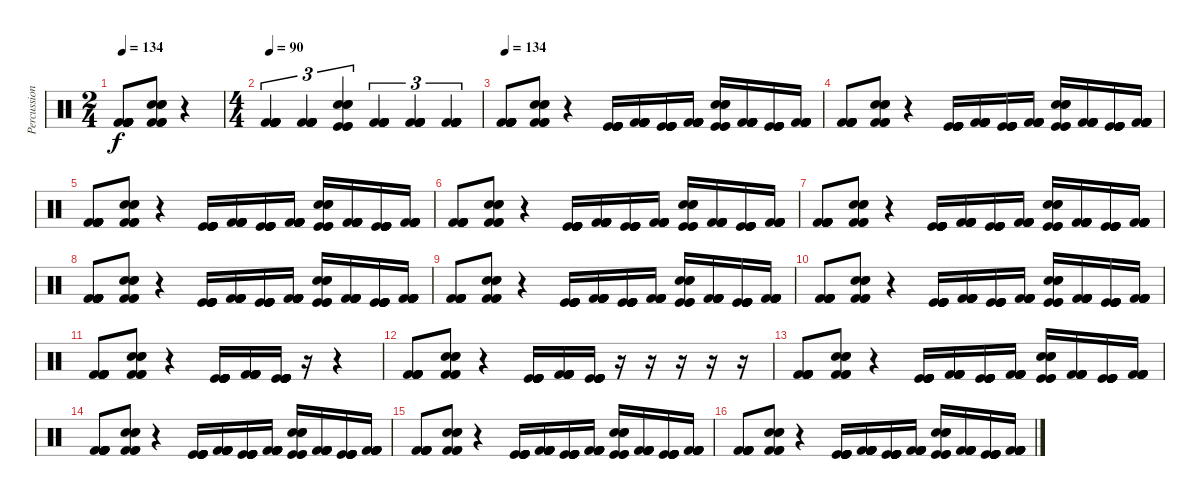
\track ("Percussion" "Percussion") {instrument percussion}
\staff {score}
\articulation defaults
\ts (2 4)
\tempo 134
\clef neutral
\ks c
("Kick (hit) 2" "Kick (hit) 2" "Kick (hit) 2" "Kick (hit) 2" "Kick (hit) 2" "Kick (hit) 2").8{dy f} ("Electric Snare (hit)" "Electric Snare (hit)" "Electric Snare (hit)" "Kick (hit) 2" "Kick (hit) 2" "Kick (hit) 2").8 r.4 |
\ts (4 4)
\tempo 80
\tempo 90
("Kick (hit) 2" "Kick (hit) 2" "Kick (hit) 2" "Kick (hit) 2" "Kick (hit) 2" "Kick (hit) 2").4{tu (3 2)} ("Kick (hit) 2" "Kick (hit) 2" "Kick (hit) 2" "Kick (hit) 2" "Kick (hit) 2" "Kick (hit) 2").4{tu (3 2)} ("Electric Snare (hit)" "Electric Snare (hit)" "Electric Snare (hit)" "Kick (hit)" "Kick (hit)" "Kick (hit)").4{tu (3 2)} ("Kick (hit) 2" "Kick (hit) 2" "Kick (hit) 2" "Kick (hit) 2" "Kick (hit) 2" "Kick (hit) 2").4{tu (3 2)} ("Kick (hit) 2" "Kick (hit) 2" "Kick (hit) 2" "Kick (hit) 2" "Kick (hit) 2" "Kick (hit) 2").4{tu (3 2)} ("Kick (hit) 2" "Kick (hit) 2" "Kick (hit) 2" "Kick (hit) 2" "Kick (hit) 2" "Kick (hit) 2").4{tu (3 2)} |
\tempo 134
("Kick (hit) 2" "Kick (hit) 2" "Kick (hit) 2" "Kick (hit) 2" "Kick (hit) 2" "Kick (hit) 2").8 ("Electric Snare (hit)" "Electric Snare (hit)" "Electric Snare (hit)" "Kick (hit) 2" "Kick (hit) 2" "Kick (hit) 2").8 r.4 ("Kick (hit)" "Kick (hit)" "Kick (hit)" "Kick (hit)" "Kick (hit)" "Kick (hit)").16 ("Kick (hit) 2" "Kick (hit) 2" "Kick (hit) 2" "Kick (hit) 2" "Kick (hit) 2" "Kick (hit) 2").16 ("Kick (hit)" "Kick (hit)" "Kick (hit)" "Kick (hit)" "Kick (hit)" "Kick (hit)").16 ("Kick (hit) 2" "Kick (hit) 2" "Kick (hit) 2" "Kick (hit) 2" "Kick (hit) 2" "Kick (hit) 2").16 ("Electric Snare (hit)" "Electric Snare (hit)" "Electric Snare (hit)" "Kick (hit)" "Kick (hit)" "Kick (hit)").16 ("Kick (hit) 2" "Kick (hit) 2" "Kick (hit) 2" "Kick (hit) 2" "Kick (hit) 2" "Kick (hit) 2").16 ("Kick (hit)" "Kick (hit)" "Kick (hit)" "Kick (hit)" "Kick (hit)" "Kick (hit)").16 ("Kick (hit) 2" "Kick (hit) 2" "Kick (hit) 2" "Kick (hit) 2" "Kick (hit) 2" "Kick (hit) 2").16 |
("Kick (hit) 2" "Kick (hit) 2" "Kick (hit) 2" "Kick (hit) 2" "Kick (hit) 2" "Kick (hit) 2").8 ("Electric Snare (hit)" "Electric Snare (hit)" "Electric Snare (hit)" "Kick (hit) 2" "Kick (hit) 2" "Kick (hit) 2").8 r.4 ("Kick (hit)" "Kick (hit)" "Kick (hit)" "Kick (hit)" "Kick (hit)" "Kick (hit)").16 ("Kick (hit) 2" "Kick (hit) 2" "Kick (hit) 2" "Kick (hit) 2" "Kick (hit) 2" "Kick (hit) 2").16 ("Kick (hit)" "Kick (hit)" "Kick (hit)" "Kick (hit)" "Kick (hit)" "Kick (hit)").16 ("Kick (hit) 2" "Kick (hit) 2" "Kick (hit) 2" "Kick (hit) 2" "Kick (hit) 2" "Kick (hit) 2").16 ("Electric Snare (hit)" "Electric Snare (hit)" "Electric Snare (hit)" "Kick (hit)" "Kick (hit)" "Kick (hit)").16 ("Kick (hit) 2" "Kick (hit) 2" "Kick (hit) 2" "Kick (hit) 2" "Kick (hit) 2" "Kick (hit) 2").16 ("Kick (hit)" "Kick (hit)" "Kick (hit)" "Kick (hit)" "Kick (hit)" "Kick (hit)").16 ("Kick (hit) 2" "Kick (hit) 2" "Kick (hit) 2" "Kick (hit) 2" "Kick (hit) 2" "Kick (hit) 2").16 |
("Kick (hit) 2" "Kick (hit) 2" "Kick (hit) 2" "Kick (hit) 2" "Kick (hit) 2" "Kick (hit) 2").8 ("Electric Snare (hit)" "Electric Snare (hit)" "Electric Snare (hit)" "Kick (hit) 2" "Kick (hit) 2" "Kick (hit) 2").8 r.4 ("Kick (hit)" "Kick (hit)" "Kick (hit)" "Kick (hit)" "Kick (hit)" "Kick (hit)").16 ("Kick (hit) 2" "Kick (hit) 2" "Kick (hit) 2" "Kick (hit) 2" "Kick (hit) 2" "Kick (hit) 2").16 ("Kick (hit)" "Kick (hit)" "Kick (hit)" "Kick (hit)" "Kick (hit)" "Kick (hit)").16 ("Kick (hit) 2" "Kick (hit) 2" "Kick (hit) 2" "Kick (hit) 2" "Kick (hit) 2" "Kick (hit) 2").16 ("Electric Snare (hit)" "Electric Snare (hit)" "Electric Snare (hit)" "Kick (hit)" "Kick (hit)" "Kick (hit)").16 ("Kick (hit) 2" "Kick (hit) 2" "Kick (hit) 2" "Kick (hit) 2" "Kick (hit) 2" "Kick (hit) 2").16 ("Kick (hit)" "Kick (hit)" "Kick (hit)" "Kick (hit)" "Kick (hit)" "Kick (hit)").16 ("Kick (hit) 2" "Kick (hit) 2" "Kick (hit) 2" "Kick (hit) 2" "Kick (hit) 2" "Kick (hit) 2").16 |
("Kick (hit) 2" "Kick (hit) 2" "Kick (hit) 2" "Kick (hit) 2" "Kick (hit) 2" "Kick (hit) 2").8 ("Electric Snare (hit)" "Electric Snare (hit)" "Electric Snare (hit)" "Kick (hit) 2" "Kick (hit) 2" "Kick (hit) 2").8 r.4 ("Kick (hit)" "Kick (hit)" "Kick (hit)" "Kick (hit)" "Kick (hit)" "Kick (hit)").16 ("Kick (hit) 2" "Kick (hit) 2" "Kick (hit) 2" "Kick (hit) 2" "Kick (hit) 2" "Kick (hit) 2").16 ("Kick (hit)" "Kick (hit)" "Kick (hit)" "Kick (hit)" "Kick (hit)" "Kick (hit)").16 ("Kick (hit) 2" "Kick (hit) 2" "Kick (hit) 2" "Kick (hit) 2" "Kick (hit) 2" "Kick (hit) 2").16 ("Electric Snare (hit)" "Electric Snare (hit)" "Electric Snare (hit)" "Kick (hit)" "Kick (hit)" "Kick (hit)").16 ("Kick (hit) 2" "Kick (hit) 2" "Kick (hit) 2" "Kick (hit) 2" "Kick (hit) 2" "Kick (hit) 2").16 ("Kick (hit)" "Kick (hit)" "Kick (hit)" "Kick (hit)" "Kick (hit)" "Kick (hit)").16 ("Kick (hit) 2" "Kick (hit) 2" "Kick (hit) 2" "Kick (hit) 2" "Kick (hit) 2" "Kick (hit) 2").16 |
("Kick (hit) 2" "Kick (hit) 2" "Kick (hit) 2" "Kick (hit) 2" "Kick (hit) 2" "Kick (hit) 2").8 ("Electric Snare (hit)" "Electric Snare (hit)" "Electric Snare (hit)" "Kick (hit) 2" "Kick (hit) 2" "Kick (hit) 2").8 r.4 ("Kick (hit)" "Kick (hit)" "Kick (hit)" "Kick (hit)" "Kick (hit)" "Kick (hit)").16 ("Kick (hit) 2" "Kick (hit) 2" "Kick (hit) 2" "Kick (hit) 2" "Kick (hit) 2" "Kick (hit) 2").16 ("Kick (hit)" "Kick (hit)" "Kick (hit)" "Kick (hit)" "Kick (hit)" "Kick (hit)").16 ("Kick (hit) 2" "Kick (hit) 2" "Kick (hit) 2" "Kick (hit) 2" "Kick (hit) 2" "Kick (hit) 2").16 ("Electric Snare (hit)" "Electric Snare (hit)" "Electric Snare (hit)" "Kick (hit)" "Kick (hit)" "Kick (hit)").16 ("Kick (hit) 2" "Kick (hit) 2" "Kick (hit) 2" "Kick (hit) 2" "Kick (hit) 2" "Kick (hit) 2").16 ("Kick (hit)" "Kick (hit)" "Kick (hit)" "Kick (hit)" "Kick (hit)" "Kick (hit)").16 ("Kick (hit) 2" "Kick (hit) 2" "Kick (hit) 2" "Kick (hit) 2" "Kick (hit) 2" "Kick (hit) 2").16 |
("Kick (hit) 2" "Kick (hit) 2" "Kick (hit) 2" "Kick (hit) 2" "Kick (hit) 2" "Kick (hit) 2").8 ("Electric Snare (hit)" "Electric Snare (hit)" "Electric Snare (hit)" "Kick (hit) 2" "Kick (hit) 2" "Kick (hit) 2").8 r.4 ("Kick (hit)" "Kick (hit)" "Kick (hit)" "Kick (hit)" "Kick (hit)" "Kick (hit)").16 ("Kick (hit) 2" "Kick (hit) 2" "Kick (hit) 2" "Kick (hit) 2" "Kick (hit) 2" "Kick (hit) 2").16 ("Kick (hit)" "Kick (hit)" "Kick (hit)" "Kick (hit)" "Kick (hit)" "Kick (hit)").16 ("Kick (hit) 2" "Kick (hit) 2" "Kick (hit) 2" "Kick (hit) 2" "Kick (hit) 2" "Kick (hit) 2").16 ("Electric Snare (hit)" "Electric Snare (hit)" "Electric Snare (hit)" "Kick (hit)" "Kick (hit)" "Kick (hit)").16 ("Kick (hit) 2" "Kick (hit) 2" "Kick (hit) 2" "Kick (hit) 2" "Kick (hit) 2" "Kick (hit) 2").16 ("Kick (hit)" "Kick (hit)" "Kick (hit)" "Kick (hit)" "Kick (hit)" "Kick (hit)").16 ("Kick (hit) 2" "Kick (hit) 2" "Kick (hit) 2" "Kick (hit) 2" "Kick (hit) 2" "Kick (hit) 2").16 |
("Kick (hit) 2" "Kick (hit) 2" "Kick (hit) 2" "Kick (hit) 2" "Kick (hit) 2" "Kick (hit) 2").8 ("Electric Snare (hit)" "Electric Snare (hit)" "Electric Snare (hit)" "Kick (hit) 2" "Kick (hit) 2" "Kick (hit) 2").8 r.4 ("Kick (hit)" "Kick (hit)" "Kick (hit)" "Kick (hit)" "Kick (hit)" "Kick (hit)").16 ("Kick (hit) 2" "Kick (hit) 2" "Kick (hit) 2" "Kick (hit) 2" "Kick (hit) 2" "Kick (hit) 2").16 ("Kick (hit)" "Kick (hit)" "Kick (hit)" "Kick (hit)" "Kick (hit)" "Kick (hit)").16 ("Kick (hit) 2" "Kick (hit) 2" "Kick (hit) 2" "Kick (hit) 2" "Kick (hit) 2" "Kick (hit) 2").16 ("Electric Snare (hit)" "Electric Snare (hit)" "Electric Snare (hit)" "Kick (hit)" "Kick (hit)" "Kick (hit)").16 ("Kick (hit) 2" "Kick (hit) 2" "Kick (hit) 2" "Kick (hit) 2" "Kick (hit) 2" "Kick (hit) 2").16 ("Kick (hit)" "Kick (hit)" "Kick (hit)" "Kick (hit)" "Kick (hit)" "Kick (hit)").16 ("Kick (hit) 2" "Kick (hit) 2" "Kick (hit) 2" "Kick (hit) 2" "Kick (hit) 2" "Kick (hit) 2").16 |
("Kick (hit) 2" "Kick (hit) 2" "Kick (hit) 2" "Kick (hit) 2" "Kick (hit) 2" "Kick (hit) 2").8 ("Electric Snare (hit)" "Electric Snare (hit)" "Electric Snare (hit)" "Kick (hit) 2" "Kick (hit) 2" "Kick (hit) 2").8 r.4 ("Kick (hit)" "Kick (hit)" "Kick (hit)" "Kick (hit)" "Kick (hit)" "Kick (hit)").16 ("Kick (hit) 2" "Kick (hit) 2" "Kick (hit) 2" "Kick (hit) 2" "Kick (hit) 2" "Kick (hit) 2").16 ("Kick (hit)" "Kick (hit)" "Kick (hit)" "Kick (hit)" "Kick (hit)" "Kick (hit)").16 ("Kick (hit) 2" "Kick (hit) 2" "Kick (hit) 2" "Kick (hit) 2" "Kick (hit) 2" "Kick (hit) 2").16 ("Electric Snare (hit)" "Electric Snare (hit)" "Electric Snare (hit)" "Kick (hit)" "Kick (hit)" "Kick (hit)").16 ("Kick (hit) 2" "Kick (hit) 2" "Kick (hit) 2" "Kick (hit) 2" "Kick (hit) 2" "Kick (hit) 2").16 ("Kick (hit)" "Kick (hit)" "Kick (hit)" "Kick (hit)" "Kick (hit)" "Kick (hit)").16 ("Kick (hit) 2" "Kick (hit) 2" "Kick (hit) 2" "Kick (hit) 2" "Kick (hit) 2" "Kick (hit) 2").16 |
("Kick (hit) 2" "Kick (hit) 2" "Kick (hit) 2" "Kick (hit) 2" "Kick (hit) 2" "Kick (hit) 2").8 ("Electric Snare (hit)" "Electric Snare (hit)" "Electric Snare (hit)" "Kick (hit) 2" "Kick (hit) 2" "Kick (hit) 2").8 r.4 ("Kick (hit)" "Kick (hit)" "Kick (hit)" "Kick (hit)" "Kick (hit)" "Kick (hit)").16 ("Kick (hit) 2" "Kick (hit) 2" "Kick (hit) 2" "Kick (hit) 2" "Kick (hit) 2" "Kick (hit) 2").16 ("Kick (hit)" "Kick (hit)" "Kick (hit)" "Kick (hit)" "Kick (hit)" "Kick (hit)").16 r.16 r.4 |
("Kick (hit) 2" "Kick (hit) 2" "Kick (hit) 2" "Kick (hit) 2" "Kick (hit) 2" "Kick (hit) 2").8 ("Electric Snare (hit)" "Electric Snare (hit)" "Electric Snare (hit)" "Kick (hit) 2" "Kick (hit) 2" "Kick (hit) 2").8 r.4 ("Kick (hit)" "Kick (hit)" "Kick (hit)" "Kick (hit)" "Kick (hit)" "Kick (hit)").16 ("Kick (hit) 2" "Kick (hit) 2" "Kick (hit) 2" "Kick (hit) 2" "Kick (hit) 2" "Kick (hit) 2").16 ("Kick (hit)" "Kick (hit)" "Kick (hit)" "Kick (hit)" "Kick (hit)" "Kick (hit)").16 r.16 r.16 r.16 r.16 r.16 |
("Kick (hit) 2" "Kick (hit) 2" "Kick (hit) 2" "Kick (hit) 2" "Kick (hit) 2" "Kick (hit) 2").8 ("Electric Snare (hit)" "Electric Snare (hit)" "Electric Snare (hit)" "Kick (hit) 2" "Kick (hit) 2" "Kick (hit) 2").8 r.4 ("Kick (hit)" "Kick (hit)" "Kick (hit)" "Kick (hit)" "Kick (hit)" "Kick (hit)").16 ("Kick (hit) 2" "Kick (hit) 2" "Kick (hit) 2" "Kick (hit) 2" "Kick (hit) 2" "Kick (hit) 2").16 ("Kick (hit)" "Kick (hit)" "Kick (hit)" "Kick (hit)" "Kick (hit)" "Kick (hit)").16 ("Kick (hit) 2" "Kick (hit) 2" "Kick (hit) 2" "Kick (hit) 2" "Kick (hit) 2" "Kick (hit) 2").16 ("Electric Snare (hit)" "Electric Snare (hit)" "Electric Snare (hit)" "Kick (hit)" "Kick (hit)" "Kick (hit)").16 ("Kick (hit) 2" "Kick (hit) 2" "Kick (hit) 2" "Kick (hit) 2" "Kick (hit) 2" "Kick (hit) 2").16 ("Kick (hit)" "Kick (hit)" "Kick (hit)" "Kick (hit)" "Kick (hit)" "Kick (hit)").16 ("Kick (hit) 2" "Kick (hit) 2" "Kick (hit) 2" "Kick (hit) 2" "Kick (hit) 2" "Kick (hit) 2").16 |
("Kick (hit) 2" "Kick (hit) 2" "Kick (hit) 2" "Kick (hit) 2" "Kick (hit) 2" "Kick (hit) 2").8 ("Electric Snare (hit)" "Electric Snare (hit)" "Electric Snare (hit)" "Kick (hit) 2" "Kick (hit) 2" "Kick (hit) 2").8 r.4 ("Kick (hit)" "Kick (hit)" "Kick (hit)" "Kick (hit)" "Kick (hit)" "Kick (hit)").16 ("Kick (hit) 2" "Kick (hit) 2" "Kick (hit) 2" "Kick (hit) 2" "Kick (hit) 2" "Kick (hit) 2").16 ("Kick (hit)" "Kick (hit)" "Kick (hit)" "Kick (hit)" "Kick (hit)" "Kick (hit)").16 ("Kick (hit) 2" "Kick (hit) 2" "Kick (hit) 2" "Kick (hit) 2" "Kick (hit) 2" "Kick (hit) 2").16 ("Electric Snare (hit)" "Electric Snare (hit)" "Electric Snare (hit)" "Kick (hit)" "Kick (hit)" "Kick (hit)").16 ("Kick (hit) 2" "Kick (hit) 2" "Kick (hit) 2" "Kick (hit) 2" "Kick (hit) 2" "Kick (hit) 2").16 ("Kick (hit)" "Kick (hit)" "Kick (hit)" "Kick (hit)" "Kick (hit)" "Kick (hit)").16 ("Kick (hit) 2" "Kick (hit) 2" "Kick (hit) 2" "Kick (hit) 2" "Kick (hit) 2" "Kick (hit) 2").16 |
("Kick (hit) 2" "Kick (hit) 2" "Kick (hit) 2" "Kick (hit) 2" "Kick (hit) 2" "Kick (hit) 2").8 ("Electric Snare (hit)" "Electric Snare (hit)" "Electric Snare (hit)" "Kick (hit) 2" "Kick (hit) 2" "Kick (hit) 2").8 r.4 ("Kick (hit)" "Kick (hit)" "Kick (hit)" "Kick (hit)" "Kick (hit)" "Kick (hit)").16 ("Kick (hit) 2" "Kick (hit) 2" "Kick (hit) 2" "Kick (hit) 2" "Kick (hit) 2" "Kick (hit) 2").16 ("Kick (hit)" "Kick (hit)" "Kick (hit)" "Kick (hit)" "Kick (hit)" "Kick (hit)").16 ("Kick (hit) 2" "Kick (hit) 2" "Kick (hit) 2" "Kick (hit) 2" "Kick (hit) 2" "Kick (hit) 2").16 ("Electric Snare (hit)" "Electric Snare (hit)" "Electric Snare (hit)" "Kick (hit)" "Kick (hit)" "Kick (hit)").16 ("Kick (hit) 2" "Kick (hit) 2" "Kick (hit) 2" "Kick (hit) 2" "Kick (hit) 2" "Kick (hit) 2").16 ("Kick (hit)" "Kick (hit)" "Kick (hit)" "Kick (hit)" "Kick (hit)" "Kick (hit)").16 ("Kick (hit) 2" "Kick (hit) 2" "Kick (hit) 2" "Kick (hit) 2" "Kick (hit) 2" "Kick (hit) 2").16 |
("Kick (hit) 2" "Kick (hit) 2" "Kick (hit) 2" "Kick (hit) 2" "Kick (hit) 2" "Kick (hit) 2").8 ("Electric Snare (hit)" "Electric Snare (hit)" "Electric Snare (hit)" "Kick (hit) 2" "Kick (hit) 2" "Kick (hit) 2").8 r.4 ("Kick (hit)" "Kick (hit)" "Kick (hit)" "Kick (hit)" "Kick (hit)" "Kick (hit)").16 ("Kick (hit) 2" "Kick (hit) 2" "Kick (hit) 2" "Kick (hit) 2" "Kick (hit) 2" "Kick (hit) 2").16 ("Kick (hit)" "Kick (hit)" "Kick (hit)" "Kick (hit)" "Kick (hit)" "Kick (hit)").16 ("Kick (hit) 2" "Kick (hit) 2" "Kick (hit) 2" "Kick (hit) 2" "Kick (hit) 2" "Kick (hit) 2").16 ("Electric Snare (hit)" "Electric Snare (hit)" "Electric Snare (hit)" "Kick (hit)" "Kick (hit)" "Kick (hit)").16 ("Kick (hit) 2" "Kick (hit) 2" "Kick (hit) 2" "Kick (hit) 2" "Kick (hit) 2" "Kick (hit) 2").16 ("Kick (hit)" "Kick (hit)" "Kick (hit)" "Kick (hit)" "Kick (hit)" "Kick (hit)").16 ("Kick (hit) 2" "Kick (hit) 2" "Kick (hit) 2" "Kick (hit) 2" "Kick (hit) 2" "Kick (hit) 2").16
